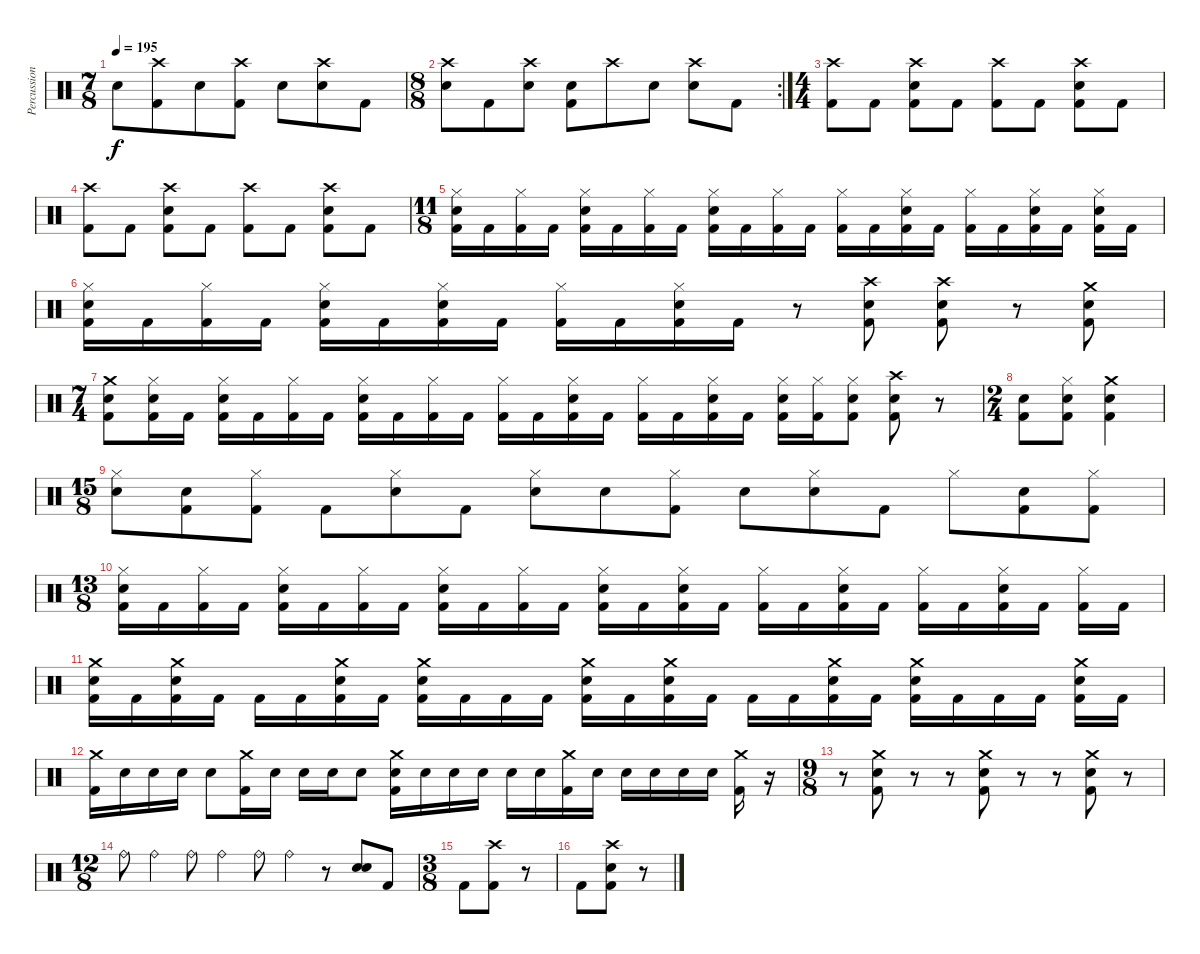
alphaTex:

\track ("Percussion" "Percussion") {instrument percussion}
\staff {score}
\articulation defaults
\ts (7 8)
\tempo 195
\clef neutral
\ks c "Electric Snare (hit)".8{dy f}
("Kick (hit) 2" "Crash high (hit)").8 "Electric Snare (hit)".8 ("Kick (hit) 2" "Crash high (hit)").8 "Electric Snare (hit)".8 ("Crash high (hit)" "Electric Snare (hit)").8 "Kick (hit) 2".8 |
\rc 2
\ts (8 8)
("Crash high (hit)" "Electric Snare (hit)").8 "Kick (hit) 2".8 ("Crash high (hit)" "Electric Snare (hit)").8 ("Kick (hit) 2" "Electric Snare (hit)").8 "Crash high (hit)".8 "Electric Snare (hit)".8 ("Crash high (hit)" "Electric Snare (hit)").8 "Kick (hit) 2".8 |
\ts (4 4)
("Kick (hit) 2" "Crash high (hit)").8 "Kick (hit) 2".8 ("Kick (hit) 2" "Crash high (hit)" "Electric Snare (hit)").8 "Kick (hit) 2".8 ("Kick (hit) 2" "Crash high (hit)").8 "Kick (hit) 2".8 ("Kick (hit) 2" "Crash high (hit)" "Electric Snare (hit)").8 "Kick (hit) 2".8 |
("Kick (hit) 2" "Crash high (hit)").8 "Kick (hit) 2".8 ("Kick (hit) 2" "Crash high (hit)" "Electric Snare (hit)").8 "Kick (hit) 2".8 ("Kick (hit) 2" "Crash high (hit)").8 "Kick (hit) 2".8 ("Kick (hit) 2" "Crash high (hit)" "Electric Snare (hit)").8 "Kick (hit) 2".8 |
\ts (11 8)
("Kick (hit) 2" "Hi-Hat (closed)" "Electric Snare (hit)").16 "Kick (hit) 2".16 ("Kick (hit) 2" "Hi-Hat (closed)").16 "Kick (hit) 2".16 ("Kick (hit) 2" "Hi-Hat (closed)" "Electric Snare (hit)").16 "Kick (hit) 2".16 ("Kick (hit) 2" "Hi-Hat (closed)").16 "Kick (hit) 2".16 ("Kick (hit) 2" "Hi-Hat (closed)" "Electric Snare (hit)").16 "Kick (hit) 2".16 ("Kick (hit) 2" "Hi-Hat (closed)").16 "Kick (hit) 2".16 ("Kick (hit) 2" "Hi-Hat (closed)").16 "Kick (hit) 2".16 ("Kick (hit) 2" "Hi-Hat (closed)" "Electric Snare (hit)").16 "Kick (hit) 2".16 ("Kick (hit) 2" "Hi-Hat (closed)").16 "Kick (hit) 2".16 ("Kick (hit) 2" "Hi-Hat (closed)" "Electric Snare (hit)").16 "Kick (hit) 2".16 ("Kick (hit) 2" "Hi-Hat (closed)" "Electric Snare (hit)").16 "Kick (hit) 2".16 |
("Kick (hit) 2" "Hi-Hat (closed)" "Electric Snare (hit)").16 "Kick (hit) 2".16 ("Kick (hit) 2" "Hi-Hat (closed)").16 "Kick (hit) 2".16 ("Kick (hit) 2" "Hi-Hat (closed)" "Electric Snare (hit)").16 "Kick (hit) 2".16 ("Kick (hit) 2" "Hi-Hat (closed)" "Electric Snare (hit)").16 "Kick (hit) 2".16 ("Kick (hit) 2" "Hi-Hat (closed)").16 "Kick (hit) 2".16 ("Kick (hit) 2" "Hi-Hat (closed)" "Electric Snare (hit)").16 "Kick (hit) 2".16 r.8 ("Kick (hit) 2" "Crash high (hit)" "Electric Snare (hit)").8 ("Kick (hit) 2" "Crash high (hit)" "Electric Snare (hit)").8 r.8 ("Kick (hit) 2" "Crash medium (hit)" "Electric Snare (hit)").8 |
\ts (7 4)
("Kick (hit) 2" "Crash medium (hit)" "Electric Snare (hit)").8 ("Kick (hit) 2" "Hi-Hat (closed)" "Electric Snare (hit)").16 "Kick (hit) 2".16 ("Kick (hit) 2" "Hi-Hat (closed)" "Electric Snare (hit)").16 "Kick (hit) 2".16 ("Kick (hit) 2" "Hi-Hat (closed)").16 "Kick (hit) 2".16 ("Kick (hit) 2" "Hi-Hat (closed)" "Electric Snare (hit)").16 "Kick (hit) 2".16 ("Kick (hit) 2" "Hi-Hat (closed)").16 "Kick (hit) 2".16 ("Kick (hit) 2" "Hi-Hat (closed)").16 "Kick (hit) 2".16 ("Kick (hit) 2" "Hi-Hat (closed)" "Electric Snare (hit)").16 "Kick (hit) 2".16 ("Kick (hit) 2" "Hi-Hat (closed)").16 "Kick (hit) 2".16 ("Kick (hit) 2" "Hi-Hat (closed)" "Electric Snare (hit)").16 "Kick (hit) 2".16 ("Kick (hit) 2" "Hi-Hat (closed)" "Electric Snare (hit)").16 ("Kick (hit) 2" "Hi-Hat (closed)").16 ("Kick (hit) 2" "Hi-Hat (closed)" "Electric Snare (hit)").8 ("Kick (hit) 2" "Crash high (hit)" "Electric Snare (hit)").8 r.8 |
\ts (2 4)
("Kick (hit) 2" "Electric Snare (hit)").8 ("Kick (hit) 2" "Hi-Hat (closed)" "Electric Snare (hit)").8 ("Kick (hit) 2" "Crash medium (hit)" "Electric Snare (hit)").4 |
\ts (15 8)
("Hi-Hat (closed)" "Electric Snare (hit)").8 ("Kick (hit) 2" "Electric Snare (hit)").8 ("Kick (hit) 2" "Hi-Hat (closed)").8 "Kick (hit) 2".8 ("Hi-Hat (closed)" "Electric Snare (hit)").8 "Kick (hit) 2".8 ("Hi-Hat (closed)" "Electric Snare (hit)").8 "Electric Snare (hit)".8 ("Kick (hit) 2" "Hi-Hat (closed)").8 "Electric Snare (hit)".8 ("Hi-Hat (closed)" "Electric Snare (hit)").8 "Kick (hit) 2".8 "Hi-Hat (closed)".8 ("Kick (hit) 2" "Electric Snare (hit)").8 ("Kick (hit) 2" "Hi-Hat (closed)").8 |
\ts (13 8)
("Kick (hit) 2" "Hi-Hat (closed)" "Electric Snare (hit)").16 "Kick (hit) 2".16 ("Kick (hit) 2" "Hi-Hat (closed)").16 "Kick (hit) 2".16 ("Kick (hit) 2" "Hi-Hat (closed)" "Electric Snare (hit)").16 "Kick (hit) 2".16 ("Kick (hit) 2" "Hi-Hat (closed)").16 "Kick (hit) 2".16 ("Kick (hit) 2" "Hi-Hat (closed)" "Electric Snare (hit)").16 "Kick (hit) 2".16 ("Kick (hit) 2" "Hi-Hat (closed)").16 "Kick (hit) 2".16 ("Kick (hit) 2" "Hi-Hat (closed)" "Electric Snare (hit)").16 "Kick (hit) 2".16 ("Kick (hit) 2" "Hi-Hat (closed)" "Electric Snare (hit)").16 "Kick (hit) 2".16 ("Kick (hit) 2" "Hi-Hat (closed)").16 "Kick (hit) 2".16 ("Kick (hit) 2" "Hi-Hat (closed)" "Electric Snare (hit)").16 "Kick (hit) 2".16 ("Kick (hit) 2" "Hi-Hat (closed)").16 "Kick (hit) 2".16 ("Kick (hit) 2" "Hi-Hat (closed)" "Electric Snare (hit)").16 "Kick (hit) 2".16 ("Kick (hit) 2" "Hi-Hat (closed)").16 "Kick (hit) 2".16 |
("Kick (hit) 2" "Crash medium (hit)" "Electric Snare (hit)").16 "Kick (hit) 2".16 ("Kick (hit) 2" "Crash medium (hit)" "Electric Snare (hit)").16 "Kick (hit) 2".16 "Kick (hit) 2".16 "Kick (hit) 2".16 ("Kick (hit) 2" "Crash medium (hit)" "Electric Snare (hit)").16 "Kick (hit) 2".16 ("Kick (hit) 2" "Crash medium (hit)" "Electric Snare (hit)").16 "Kick (hit) 2".16 "Kick (hit) 2".16 "Kick (hit) 2".16 ("Kick (hit) 2" "Crash medium (hit)" "Electric Snare (hit)").16 "Kick (hit) 2".16 ("Kick (hit) 2" "Crash medium (hit)" "Electric Snare (hit)").16 "Kick (hit) 2".16 "Kick (hit) 2".16 "Kick (hit) 2".16 ("Kick (hit) 2" "Crash medium (hit)" "Electric Snare (hit)").16 "Kick (hit) 2".16 ("Kick (hit) 2" "Crash medium (hit)" "Electric Snare (hit)").16 "Kick (hit) 2".16 "Kick (hit) 2".16 "Kick (hit) 2".16 ("Kick (hit) 2" "Crash medium (hit)" "Electric Snare (hit)").16 "Kick (hit) 2".16 |
("Kick (hit) 2" "Crash medium (hit)").16 "Electric Snare (hit)".16 "Electric Snare (hit)".16 "Electric Snare (hit)".16 "Electric Snare (hit)".8 ("Kick (hit) 2" "Crash medium (hit)").16 "Electric Snare (hit)".16 "Electric Snare (hit)".16 "Electric Snare (hit)".16 "Electric Snare (hit)".8 ("Kick (hit) 2" "Crash medium (hit)" "Electric Snare (hit)").16 "Electric Snare (hit)".16 "Electric Snare (hit)".16 "Electric Snare (hit)".16 "Electric Snare (hit)".16 "Electric Snare (hit)".16 ("Kick (hit) 2" "Crash medium (hit)").16 "Electric Snare (hit)".16 "Electric Snare (hit)".16 "Electric Snare (hit)".16 "Electric Snare (hit)".16 "Electric Snare (hit)".16 ("Kick (hit) 2" "Crash medium (hit)").16 r.16 |
\ts (9 8)
r.8 ("Kick (hit) 2" "Crash medium (hit)" "Electric Snare (hit)").8 r.8 r.8 ("Kick (hit) 2" "Crash medium (hit)" "Electric Snare (hit)").8 r.8 r.8 ("Kick (hit) 2" "Crash medium (hit)" "Electric Snare (hit)").8 r.8 |
\ts (12 8)
"Ride (bell)".8 "Ride (bell)".4 "Ride (bell)".8 "Ride (bell)".4 "Ride (bell)".8 "Ride (bell)".4 r.8 ("Electric Snare (hit)" "Electric Snare (hit)").8 "Kick (hit) 2".8 |
\ts (3 8)
"Kick (hit) 2".8 ("Kick (hit) 2" "Crash high (hit)").8 r.8 |
"Kick (hit) 2".8 ("Kick (hit) 2" "Crash high (hit)" "Electric Snare (hit)").8 r.8
